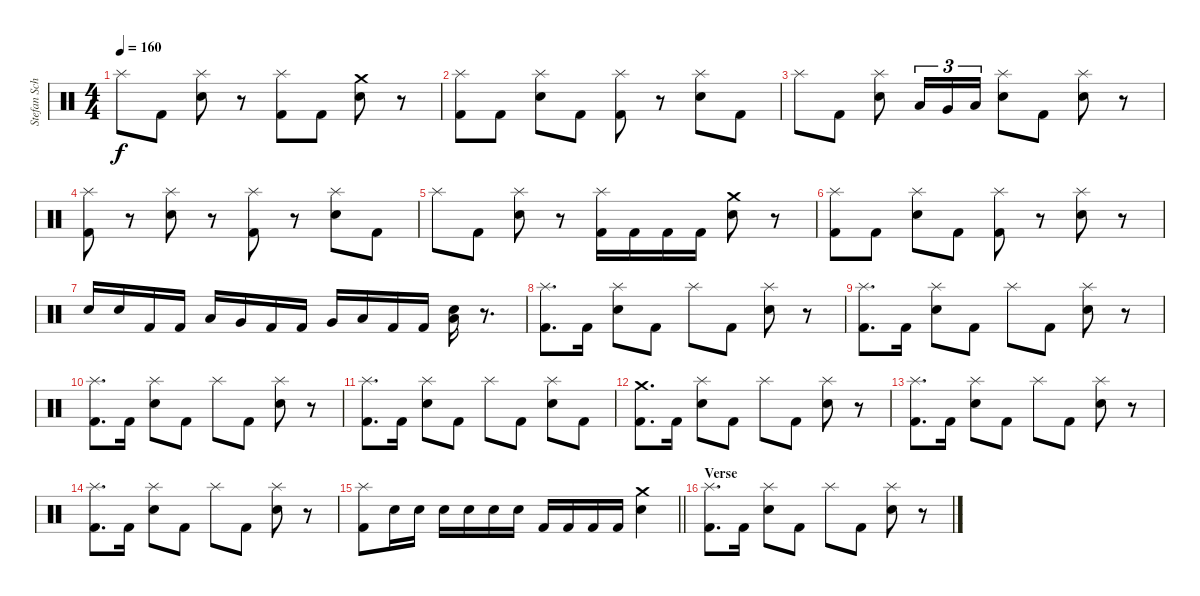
\track ("Stefan Schwarzmann" "Stefan Sch") {instrument percussion}
\staff {score}
\articulation defaults
\ts (4 4)
\tempo 160
\clef neutral
\ks c "Splash (hit)".8{dy f} "Kick (hit) 2".8
("Splash (hit)" "Snare (hit) 2").8 r.8 ("Splash (hit)" "Kick (hit) 2").8 "Kick (hit) 2".8 ("Crash medium (hit)" "Snare (hit) 2").8 r.8 |
("Splash (hit)" "Kick (hit) 2").8 "Kick (hit) 2".8 ("Splash (hit)" "Snare (hit) 2").8 "Kick (hit) 2".8 ("Splash (hit)" "Kick (hit) 2").8 r.8 ("Splash (hit)" "Snare (hit) 2").8 "Kick (hit) 2".8 |
"Splash (hit)".8 "Kick (hit) 2".8 ("Splash (hit)" "Snare (hit) 2").8 "Low Tom (hit)".16{tu (3 2)} "Very Low Tom (hit)".16{tu (3 2)} "Low Floor Tom (hit)".16{tu (3 2)} ("Splash (hit)" "Snare (hit) 2").8 "Kick (hit) 2".8 ("Splash (hit)" "Snare (hit) 2").8 r.8 |
("Splash (hit)" "Kick (hit) 2").8 r.8 ("Splash (hit)" "Snare (hit) 2").8 r.8 ("Splash (hit)" "Kick (hit) 2").8 r.8 ("Splash (hit)" "Snare (hit) 2").8 "Kick (hit) 2".8 |
"Splash (hit)".8 "Kick (hit) 2".8 ("Splash (hit)" "Snare (hit) 2").8 r.8 ("Splash (hit)" "Kick (hit) 2").16 "Kick (hit) 2".16 "Kick (hit) 2".16 "Kick (hit) 2".16 ("Crash medium (hit)" "Snare (hit) 2").8 r.8 |
("Splash (hit)" "Kick (hit) 2").8 "Kick (hit) 2".8 ("Splash (hit)" "Snare (hit) 2").8 "Kick (hit) 2".8 ("Splash (hit)" "Kick (hit) 2").8 r.8 ("Splash (hit)" "Snare (hit) 2").8 r.8 |
"Snare (hit) 2".16 "Snare (hit) 2".16 "Kick (hit) 2".16 "Kick (hit) 2".16 "Low Tom (hit)".16 "Very Low Tom (hit)".16 "Kick (hit) 2".16 "Kick (hit) 2".16 "Very Low Tom (hit)".16 "Low Floor Tom (hit)".16 "Kick (hit) 2".16 "Kick (hit) 2".16 ("Low Floor Tom (hit)" "Snare (hit) 2").16 r.8{d} |
("Splash (hit)" "Kick (hit) 2").8{d} "Kick (hit) 2".16 ("Splash (hit)" "Snare (hit) 2").8 "Kick (hit) 2".8 "Splash (hit)".8 "Kick (hit) 2".8 ("Splash (hit)" "Snare (hit) 2").8 r.8 |
("Splash (hit)" "Kick (hit) 2").8{d} "Kick (hit) 2".16 ("Splash (hit)" "Snare (hit) 2").8 "Kick (hit) 2".8 "Splash (hit)".8 "Kick (hit) 2".8 ("Splash (hit)" "Snare (hit) 2").8 r.8 |
("Splash (hit)" "Kick (hit) 2").8{d} "Kick (hit) 2".16 ("Splash (hit)" "Snare (hit) 2").8 "Kick (hit) 2".8 "Splash (hit)".8 "Kick (hit) 2".8 ("Splash (hit)" "Snare (hit) 2").8 r.8 |
("Splash (hit)" "Kick (hit) 2").8{d} "Kick (hit) 2".16 ("Splash (hit)" "Snare (hit) 2").8 "Kick (hit) 2".8 "Splash (hit)".8 "Kick (hit) 2".8 ("Splash (hit)" "Snare (hit) 2").8 "Kick (hit) 2".8 |
("Crash medium (hit)" "Kick (hit) 2").8{d} "Kick (hit) 2".16 ("Splash (hit)" "Snare (hit) 2").8 "Kick (hit) 2".8 "Splash (hit)".8 "Kick (hit) 2".8 ("Splash (hit)" "Snare (hit) 2").8 r.8 |
("Splash (hit)" "Kick (hit) 2").8{d} "Kick (hit) 2".16 ("Splash (hit)" "Snare (hit) 2").8 "Kick (hit) 2".8 "Splash (hit)".8 "Kick (hit) 2".8 ("Splash (hit)" "Snare (hit) 2").8 r.8 |
("Splash (hit)" "Kick (hit) 2").8{d} "Kick (hit) 2".16 ("Splash (hit)" "Snare (hit) 2").8 "Kick (hit) 2".8 "Splash (hit)".8 "Kick (hit) 2".8 ("Splash (hit)" "Snare (hit) 2").8 r.8 |
\barLineRight lightlight
("Splash (hit)" "Kick (hit) 2").8 "Snare (hit) 2".16 "Snare (hit) 2".16 "Snare (hit) 2".16 "Snare (hit) 2".16 "Snare (hit) 2".16 "Snare (hit) 2".16 "Kick (hit) 2".16 "Kick (hit) 2".16 "Kick (hit) 2".16 "Kick (hit) 2".16 ("Crash medium (hit)" "Snare (hit) 2").4 |
\section ("" "Verse")
("Splash (hit)" "Kick (hit) 2").8{d} "Kick (hit) 2".16 ("Splash (hit)" "Snare (hit) 2").8 "Kick (hit) 2".8 "Splash (hit)".8 "Kick (hit) 2".8 ("Splash (hit)" "Snare (hit) 2").8 r.8
